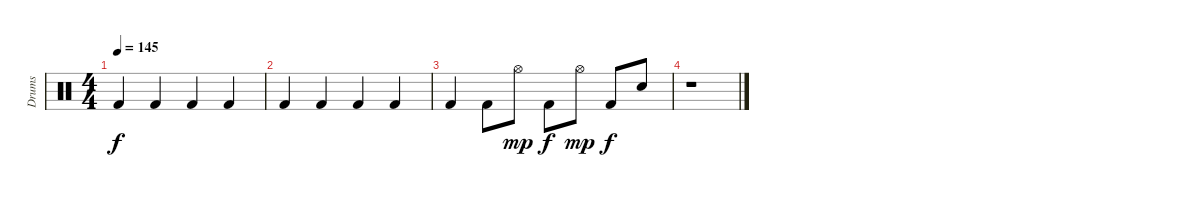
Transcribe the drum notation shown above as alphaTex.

\track ("Drums" "Drums") {instrument percussion}
\staff {score}
\articulation defaults
\ts (4 4)
\tempo 145
\clef neutral
\ks c "Kick (hit) 2".4{dy f} "Kick (hit) 2".4 "Kick (hit) 2".4 "Kick (hit) 2".4
|
"Kick (hit) 2".4 "Kick (hit) 2".4 "Kick (hit) 2".4 "Kick (hit) 2".4 |
"Kick (hit) 2".4 "Kick (hit) 2".8 "Hi-Hat (open)".8{dy mp} "Kick (hit) 2".8{dy f} "Hi-Hat (open)".8{dy mp} "Kick (hit) 2".8{dy f} "Snare (hit) 2".8 |
r.1
